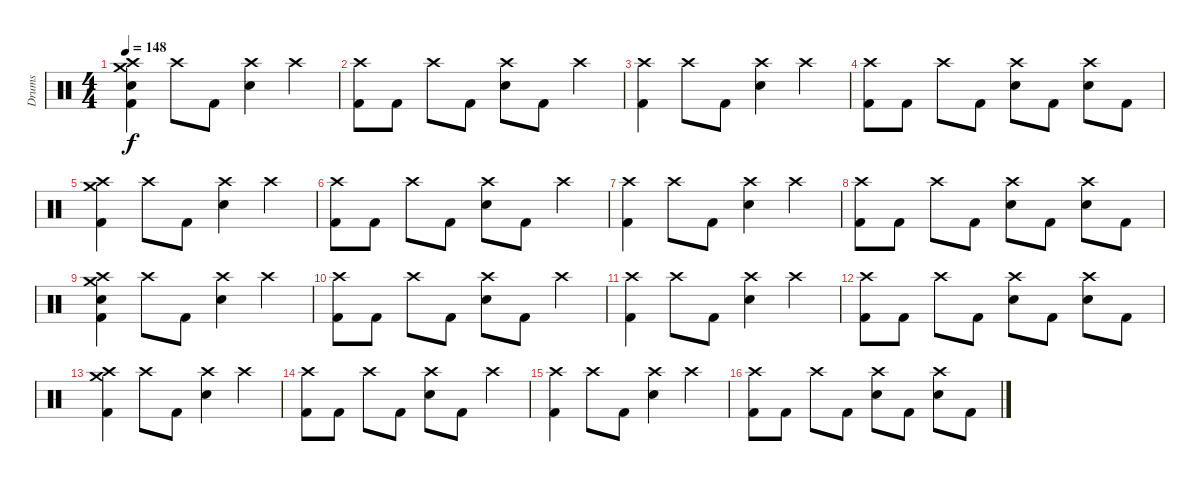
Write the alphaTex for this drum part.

\track ("Drums" "Drums") {instrument percussion}
\staff {score}
\articulation defaults
\ts (4 4)
\tempo 148
\clef neutral
\ks c
("Crash medium (hit)" "Crash high (hit)" "Electric Snare (hit)" "Kick (hit) 2").4{dy f} "Crash high (hit)".8 "Kick (hit) 2".8 ("Crash high (hit)" "Electric Snare (hit)").4 "Crash high (hit)".4 |
("Crash high (hit)" "Kick (hit) 2").8 "Kick (hit) 2".8 "Crash high (hit)".8 "Kick (hit) 2".8 ("Crash high (hit)" "Electric Snare (hit)").8 "Kick (hit) 2".8 "Crash high (hit)".4 |
("Crash high (hit)" "Kick (hit) 2").4 "Crash high (hit)".8 "Kick (hit) 2".8 ("Crash high (hit)" "Electric Snare (hit)").4 "Crash high (hit)".4 |
("Crash high (hit)" "Kick (hit) 2").8 "Kick (hit) 2".8 "Crash high (hit)".8 "Kick (hit) 2".8 ("Crash high (hit)" "Electric Snare (hit)").8 "Kick (hit) 2".8 ("Crash high (hit)" "Electric Snare (hit)").8 "Kick (hit) 2".8 |
("Crash medium (hit)" "Crash high (hit)" "Kick (hit) 2").4 "Crash high (hit)".8 "Kick (hit) 2".8 ("Crash high (hit)" "Electric Snare (hit)").4 "Crash high (hit)".4 |
("Crash high (hit)" "Kick (hit) 2").8 "Kick (hit) 2".8 "Crash high (hit)".8 "Kick (hit) 2".8 ("Crash high (hit)" "Electric Snare (hit)").8 "Kick (hit) 2".8 "Crash high (hit)".4 |
("Crash high (hit)" "Kick (hit) 2").4 "Crash high (hit)".8 "Kick (hit) 2".8 ("Crash high (hit)" "Electric Snare (hit)").4 "Crash high (hit)".4 |
("Crash high (hit)" "Kick (hit) 2").8 "Kick (hit) 2".8 "Crash high (hit)".8 "Kick (hit) 2".8 ("Crash high (hit)" "Electric Snare (hit)").8 "Kick (hit) 2".8 ("Crash high (hit)" "Electric Snare (hit)").8 "Kick (hit) 2".8 |
("Crash medium (hit)" "Crash high (hit)" "Electric Snare (hit)" "Kick (hit) 2").4 "Crash high (hit)".8 "Kick (hit) 2".8 ("Crash high (hit)" "Electric Snare (hit)").4 "Crash high (hit)".4 |
("Crash high (hit)" "Kick (hit) 2").8 "Kick (hit) 2".8 "Crash high (hit)".8 "Kick (hit) 2".8 ("Crash high (hit)" "Electric Snare (hit)").8 "Kick (hit) 2".8 "Crash high (hit)".4 |
("Crash high (hit)" "Kick (hit) 2").4 "Crash high (hit)".8 "Kick (hit) 2".8 ("Crash high (hit)" "Electric Snare (hit)").4 "Crash high (hit)".4 |
("Crash high (hit)" "Kick (hit) 2").8 "Kick (hit) 2".8 "Crash high (hit)".8 "Kick (hit) 2".8 ("Crash high (hit)" "Electric Snare (hit)").8 "Kick (hit) 2".8 ("Crash high (hit)" "Electric Snare (hit)").8 "Kick (hit) 2".8 |
("Crash medium (hit)" "Crash high (hit)" "Kick (hit) 2").4 "Crash high (hit)".8 "Kick (hit) 2".8 ("Crash high (hit)" "Electric Snare (hit)").4 "Crash high (hit)".4 |
("Crash high (hit)" "Kick (hit) 2").8 "Kick (hit) 2".8 "Crash high (hit)".8 "Kick (hit) 2".8 ("Crash high (hit)" "Electric Snare (hit)").8 "Kick (hit) 2".8 "Crash high (hit)".4 |
("Crash high (hit)" "Kick (hit) 2").4 "Crash high (hit)".8 "Kick (hit) 2".8 ("Crash high (hit)" "Electric Snare (hit)").4 "Crash high (hit)".4 |
("Crash high (hit)" "Kick (hit) 2").8 "Kick (hit) 2".8 "Crash high (hit)".8 "Kick (hit) 2".8 ("Crash high (hit)" "Electric Snare (hit)").8 "Kick (hit) 2".8 ("Crash high (hit)" "Electric Snare (hit)").8 "Kick (hit) 2".8
